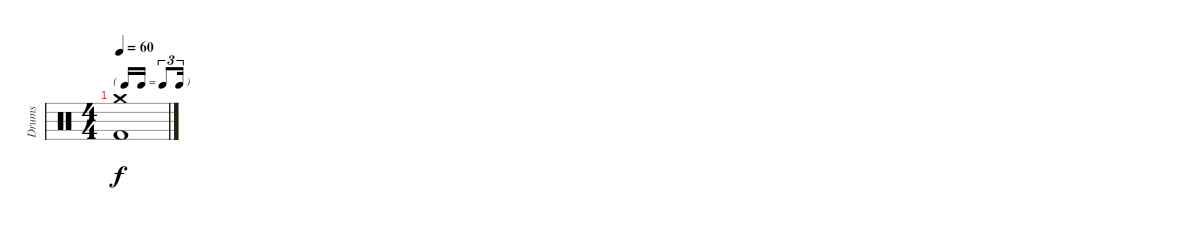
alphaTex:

\track ("Drums" "Drums") {instrument percussion}
\staff
\articulation defaults
\ts (4 4)
\tf triplet16th
\tempo 60
\clef neutral
\ks c
("Kick (hit) 2" "Crash medium (hit)").1{dy f}
